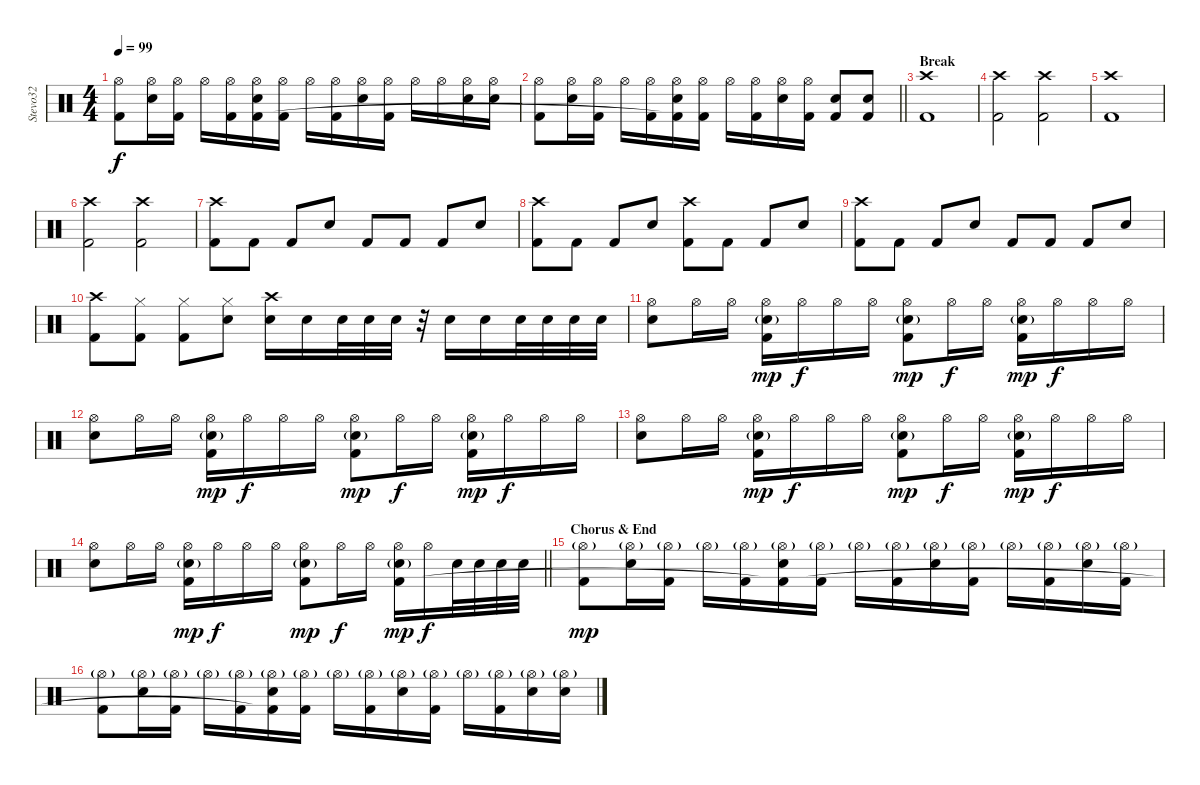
\track ("Stevo32" "Stevo32") {instrument percussion}
\staff {score}
\articulation defaults
\ts (4 4)
\tempo 99
\clef neutral
\ks c
("Hi-Hat (open)" "Kick (hit) 2").8{dy f} ("Hi-Hat (open)" "Electric Snare (hit)").16 ("Hi-Hat (open)" "Kick (hit) 2").16 "Hi-Hat (open)".16 ("Hi-Hat (open)" "Kick (hit) 2").16 ("Hi-Hat (open)" "Electric Snare (hit)" "Kick (hit) 2"{t}).16 ("Hi-Hat (open)" "Kick (hit) 2").16 "Hi-Hat (open)".16 ("Hi-Hat (open)" "Kick (hit) 2").16 ("Hi-Hat (open)" "Electric Snare (hit)").16 ("Hi-Hat (open)" "Kick (hit) 2").16 "Hi-Hat (open)".16 "Hi-Hat (open)".16 ("Hi-Hat (open)" "Electric Snare (hit)").16 ("Hi-Hat (open)" "Electric Snare (hit)").16 |
\barLineRight lightlight
("Hi-Hat (open)" "Kick (hit) 2").8 ("Hi-Hat (open)" "Electric Snare (hit)").16 ("Hi-Hat (open)" "Kick (hit) 2").16 "Hi-Hat (open)".16 ("Hi-Hat (open)" "Kick (hit) 2").16 ("Hi-Hat (open)" "Electric Snare (hit)" "Kick (hit) 2"{t}).16 ("Hi-Hat (open)" "Kick (hit) 2").16 "Hi-Hat (open)".16 ("Hi-Hat (open)" "Kick (hit) 2").16 ("Hi-Hat (open)" "Electric Snare (hit)").16 ("Hi-Hat (open)" "Kick (hit) 2").16 ("Electric Snare (hit)" "Kick (hit) 2").8 ("Electric Snare (hit)" "Kick (hit) 2").8 |
\section ("" "Break")
("Crash high (hit)" "Kick (hit) 2").1 |
("Crash high (hit)" "Kick (hit) 2").2 ("Crash high (hit)" "Kick (hit) 2").2 |
("Crash high (hit)" "Kick (hit) 2").1 |
("Crash high (hit)" "Kick (hit) 2").2 ("Crash high (hit)" "Kick (hit) 2").2 |
("Crash high (hit)" "Kick (hit) 2").8 "Kick (hit) 2".8 "Kick (hit) 2".8 "Electric Snare (hit)".8 "Kick (hit) 2".8 "Kick (hit) 2".8 "Kick (hit) 2".8 "Electric Snare (hit)".8 |
("Crash high (hit)" "Kick (hit) 2").8 "Kick (hit) 2".8 "Kick (hit) 2".8 "Electric Snare (hit)".8 ("Crash high (hit)" "Kick (hit) 2").8 "Kick (hit) 2".8 "Kick (hit) 2".8 "Electric Snare (hit)".8 |
("Crash high (hit)" "Kick (hit) 2").8 "Kick (hit) 2".8 "Kick (hit) 2".8 "Electric Snare (hit)".8 "Kick (hit) 2".8 "Kick (hit) 2".8 "Kick (hit) 2".8 "Electric Snare (hit)".8 |
("Crash high (hit)" "Kick (hit) 2").8 ("Hi-Hat (closed)" "Kick (hit) 2").8 ("Hi-Hat (closed)" "Kick (hit) 2").8 ("Hi-Hat (closed)" "Electric Snare (hit)").8 ("Crash high (hit)" "Electric Snare (hit)").16 "Electric Snare (hit)".16 "Electric Snare (hit)".32 "Electric Snare (hit)".32 "Electric Snare (hit)".32 r.32 "Electric Snare (hit)".16 "Electric Snare (hit)".16 "Electric Snare (hit)".32 "Electric Snare (hit)".32 "Electric Snare (hit)".32 "Electric Snare (hit)".32 |
("Hi-Hat (open)" "Electric Snare (hit)").8 "Hi-Hat (open)".16 "Hi-Hat (open)".16 ("Hi-Hat (open)" "Electric Snare (hit)"{g} "Kick (hit) 2").16{dy mp} "Hi-Hat (open)".16{dy f} "Hi-Hat (open)".16 "Hi-Hat (open)".16 ("Hi-Hat (open)" "Electric Snare (hit)"{g} "Kick (hit) 2").8{dy mp} "Hi-Hat (open)".16{dy f} "Hi-Hat (open)".16 ("Hi-Hat (open)" "Electric Snare (hit)"{g} "Kick (hit) 2").16{dy mp} "Hi-Hat (open)".16{dy f} "Hi-Hat (open)".16 "Hi-Hat (open)".16 |
("Hi-Hat (open)" "Electric Snare (hit)").8 "Hi-Hat (open)".16 "Hi-Hat (open)".16 ("Hi-Hat (open)" "Electric Snare (hit)"{g} "Kick (hit) 2").16{dy mp} "Hi-Hat (open)".16{dy f} "Hi-Hat (open)".16 "Hi-Hat (open)".16 ("Hi-Hat (open)" "Electric Snare (hit)"{g} "Kick (hit) 2").8{dy mp} "Hi-Hat (open)".16{dy f} "Hi-Hat (open)".16 ("Hi-Hat (open)" "Electric Snare (hit)"{g} "Kick (hit) 2").16{dy mp} "Hi-Hat (open)".16{dy f} "Hi-Hat (open)".16 "Hi-Hat (open)".16 |
("Hi-Hat (open)" "Electric Snare (hit)").8 "Hi-Hat (open)".16 "Hi-Hat (open)".16 ("Hi-Hat (open)" "Electric Snare (hit)"{g} "Kick (hit) 2").16{dy mp} "Hi-Hat (open)".16{dy f} "Hi-Hat (open)".16 "Hi-Hat (open)".16 ("Hi-Hat (open)" "Electric Snare (hit)"{g} "Kick (hit) 2").8{dy mp} "Hi-Hat (open)".16{dy f} "Hi-Hat (open)".16 ("Hi-Hat (open)" "Electric Snare (hit)"{g} "Kick (hit) 2").16{dy mp} "Hi-Hat (open)".16{dy f} "Hi-Hat (open)".16 "Hi-Hat (open)".16 |
\barLineRight lightlight
("Hi-Hat (open)" "Electric Snare (hit)").8 "Hi-Hat (open)".16 "Hi-Hat (open)".16 ("Hi-Hat (open)" "Electric Snare (hit)"{g} "Kick (hit) 2").16{dy mp} "Hi-Hat (open)".16{dy f} "Hi-Hat (open)".16 "Hi-Hat (open)".16 ("Hi-Hat (open)" "Electric Snare (hit)"{g} "Kick (hit) 2").8{dy mp} "Hi-Hat (open)".16{dy f} "Hi-Hat (open)".16 ("Hi-Hat (open)" "Electric Snare (hit)"{g} "Kick (hit) 2").16{dy mp} "Hi-Hat (open)".16{dy f} "Electric Snare (hit)".32 "Electric Snare (hit)".32 "Electric Snare (hit)".32 "Electric Snare (hit)".32 |
\section ("" "Chorus & End")
("Hi-Hat (open)"{g} "Kick (hit) 2").8{dy mp} ("Hi-Hat (open)"{g} "Electric Snare (hit)").16 ("Hi-Hat (open)"{g} "Kick (hit) 2").16 "Hi-Hat (open)"{g}.16 ("Hi-Hat (open)"{g} "Kick (hit) 2").16 ("Hi-Hat (open)"{g} "Electric Snare (hit)" "Kick (hit) 2"{t}).16 ("Hi-Hat (open)"{g} "Kick (hit) 2").16 "Hi-Hat (open)"{g}.16 ("Hi-Hat (open)"{g} "Kick (hit) 2").16 ("Hi-Hat (open)"{g} "Electric Snare (hit)").16 ("Hi-Hat (open)"{g} "Kick (hit) 2").16 "Hi-Hat (open)"{g}.16 ("Hi-Hat (open)"{g} "Kick (hit) 2").16 ("Hi-Hat (open)"{g} "Electric Snare (hit)").16 ("Hi-Hat (open)"{g} "Kick (hit) 2").16 |
("Hi-Hat (open)"{g} "Kick (hit) 2").8 ("Hi-Hat (open)"{g} "Electric Snare (hit)").16 ("Hi-Hat (open)"{g} "Kick (hit) 2").16 "Hi-Hat (open)"{g}.16 ("Hi-Hat (open)"{g} "Kick (hit) 2").16 ("Hi-Hat (open)"{g} "Electric Snare (hit)" "Kick (hit) 2"{t}).16 ("Hi-Hat (open)"{g} "Kick (hit) 2").16 "Hi-Hat (open)"{g}.16 ("Hi-Hat (open)"{g} "Kick (hit) 2").16 ("Hi-Hat (open)"{g} "Electric Snare (hit)").16 ("Hi-Hat (open)"{g} "Kick (hit) 2").16 "Hi-Hat (open)"{g}.16 ("Hi-Hat (open)"{g} "Kick (hit) 2").16 ("Hi-Hat (open)"{g} "Electric Snare (hit)").16 ("Hi-Hat (open)"{g} "Electric Snare (hit)").16
